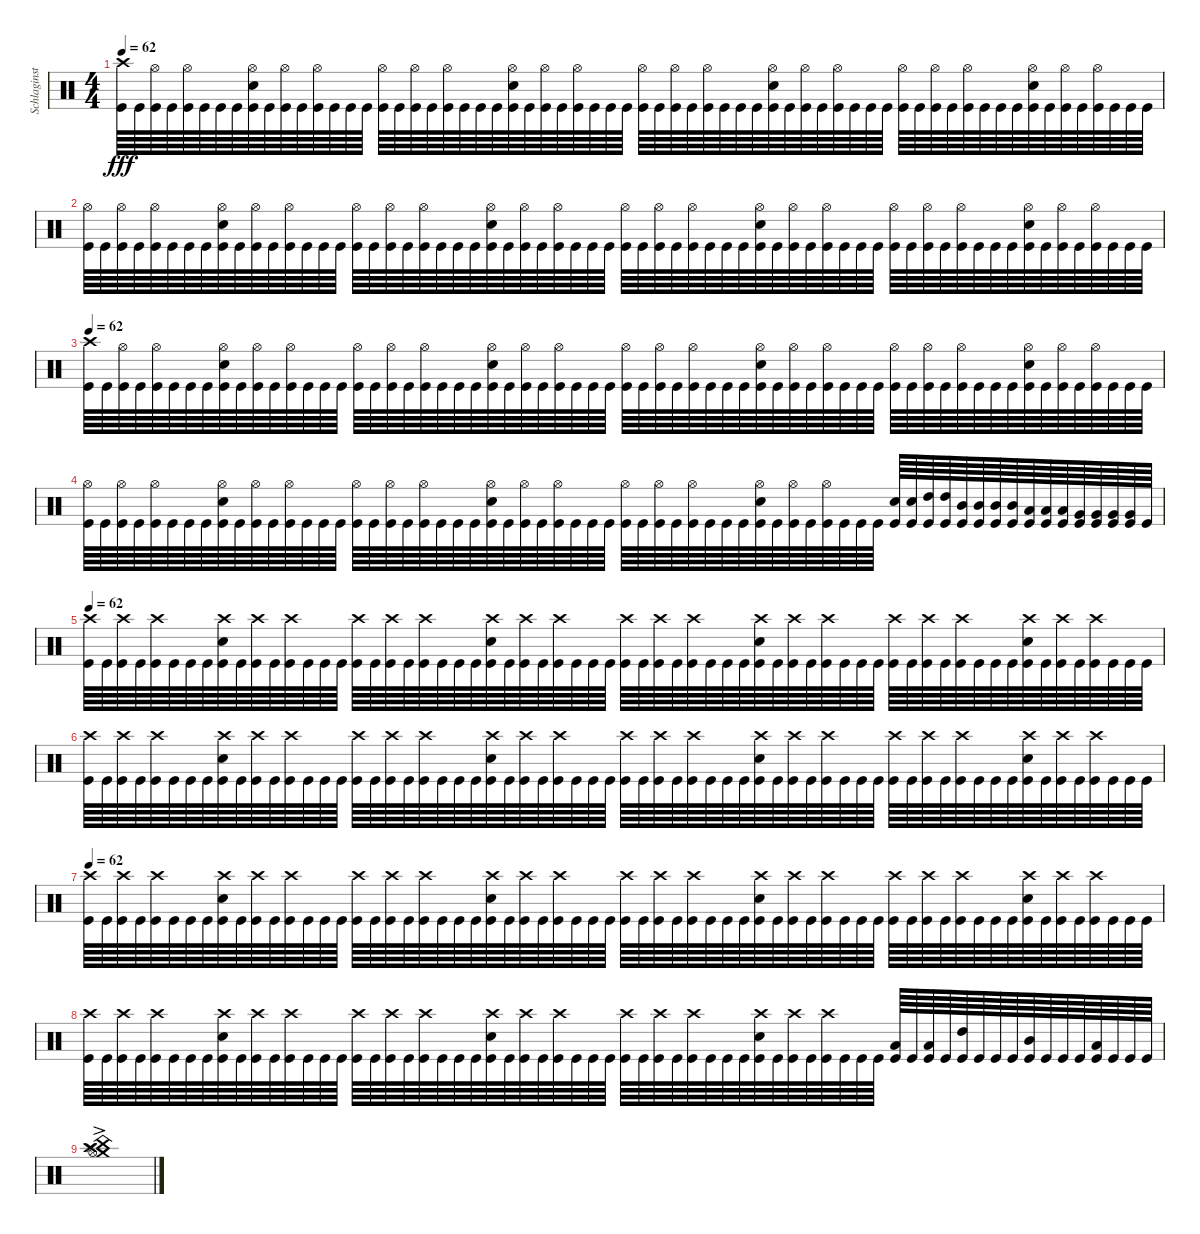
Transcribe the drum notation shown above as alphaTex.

\track ("Schlaginstrumente - Auswahl" "Schlaginst") {instrument percussion}
\staff {score}
\articulation defaults
\ts (4 4)
\tempo 62
\clef neutral
\ks c
("Kick (hit)" "Crash high (hit)").64{dy fff} "Kick (hit)".64 ("Kick (hit)" "Hi-Hat (open)").64 "Kick (hit)".64 ("Kick (hit)" "Hi-Hat (open)").64 "Kick (hit)".64 "Kick (hit)".64 "Kick (hit)".64 ("Kick (hit)" "Hi-Hat (open)" "Snare (hit) 2").64 "Kick (hit)".64 ("Kick (hit)" "Hi-Hat (open)").64 "Kick (hit)".64 ("Kick (hit)" "Hi-Hat (open)").64 "Kick (hit)".64 "Kick (hit)".64 "Kick (hit)".64 ("Kick (hit)" "Hi-Hat (open)").64 "Kick (hit)".64 ("Kick (hit)" "Hi-Hat (open)").64 "Kick (hit)".64 ("Kick (hit)" "Hi-Hat (open)").64 "Kick (hit)".64 "Kick (hit)".64 "Kick (hit)".64 ("Kick (hit)" "Hi-Hat (open)" "Snare (hit) 2").64 "Kick (hit)".64 ("Kick (hit)" "Hi-Hat (open)").64 "Kick (hit)".64 ("Kick (hit)" "Hi-Hat (open)").64 "Kick (hit)".64 "Kick (hit)".64 "Kick (hit)".64 ("Kick (hit)" "Hi-Hat (open)").64 "Kick (hit)".64 ("Kick (hit)" "Hi-Hat (open)").64 "Kick (hit)".64 ("Kick (hit)" "Hi-Hat (open)").64 "Kick (hit)".64 "Kick (hit)".64 "Kick (hit)".64 ("Kick (hit)" "Hi-Hat (open)" "Snare (hit) 2").64 "Kick (hit)".64 ("Kick (hit)" "Hi-Hat (open)").64 "Kick (hit)".64 ("Kick (hit)" "Hi-Hat (open)").64 "Kick (hit)".64 "Kick (hit)".64 "Kick (hit)".64 ("Kick (hit)" "Hi-Hat (open)").64 "Kick (hit)".64 ("Kick (hit)" "Hi-Hat (open)").64 "Kick (hit)".64 ("Kick (hit)" "Hi-Hat (open)").64 "Kick (hit)".64 "Kick (hit)".64 "Kick (hit)".64 ("Kick (hit)" "Hi-Hat (open)" "Snare (hit) 2").64 "Kick (hit)".64 ("Kick (hit)" "Hi-Hat (open)").64 "Kick (hit)".64 ("Kick (hit)" "Hi-Hat (open)").64 "Kick (hit)".64 "Kick (hit)".64 "Kick (hit)".64 |
("Kick (hit)" "Hi-Hat (open)").64 "Kick (hit)".64 ("Kick (hit)" "Hi-Hat (open)").64 "Kick (hit)".64 ("Kick (hit)" "Hi-Hat (open)").64 "Kick (hit)".64 "Kick (hit)".64 "Kick (hit)".64 ("Kick (hit)" "Hi-Hat (open)" "Snare (hit) 2").64 "Kick (hit)".64 ("Kick (hit)" "Hi-Hat (open)").64 "Kick (hit)".64 ("Kick (hit)" "Hi-Hat (open)").64 "Kick (hit)".64 "Kick (hit)".64 "Kick (hit)".64 ("Kick (hit)" "Hi-Hat (open)").64 "Kick (hit)".64 ("Kick (hit)" "Hi-Hat (open)").64 "Kick (hit)".64 ("Kick (hit)" "Hi-Hat (open)").64 "Kick (hit)".64 "Kick (hit)".64 "Kick (hit)".64 ("Kick (hit)" "Hi-Hat (open)" "Snare (hit) 2").64 "Kick (hit)".64 ("Kick (hit)" "Hi-Hat (open)").64 "Kick (hit)".64 ("Kick (hit)" "Hi-Hat (open)").64 "Kick (hit)".64 "Kick (hit)".64 "Kick (hit)".64 ("Kick (hit)" "Hi-Hat (open)").64 "Kick (hit)".64 ("Kick (hit)" "Hi-Hat (open)").64 "Kick (hit)".64 ("Kick (hit)" "Hi-Hat (open)").64 "Kick (hit)".64 "Kick (hit)".64 "Kick (hit)".64 ("Kick (hit)" "Hi-Hat (open)" "Snare (hit) 2").64 "Kick (hit)".64 ("Kick (hit)" "Hi-Hat (open)").64 "Kick (hit)".64 ("Kick (hit)" "Hi-Hat (open)").64 "Kick (hit)".64 "Kick (hit)".64 "Kick (hit)".64 ("Kick (hit)" "Hi-Hat (open)").64 "Kick (hit)".64 ("Kick (hit)" "Hi-Hat (open)").64 "Kick (hit)".64 ("Kick (hit)" "Hi-Hat (open)").64 "Kick (hit)".64 "Kick (hit)".64 "Kick (hit)".64 ("Kick (hit)" "Hi-Hat (open)" "Snare (hit) 2").64 "Kick (hit)".64 ("Kick (hit)" "Hi-Hat (open)").64 "Kick (hit)".64 ("Kick (hit)" "Hi-Hat (open)").64 "Kick (hit)".64 "Kick (hit)".64 "Kick (hit)".64 |
\tempo 62
("Kick (hit)" "Crash high (hit)").64 "Kick (hit)".64 ("Kick (hit)" "Hi-Hat (open)").64 "Kick (hit)".64 ("Kick (hit)" "Hi-Hat (open)").64 "Kick (hit)".64 "Kick (hit)".64 "Kick (hit)".64 ("Kick (hit)" "Hi-Hat (open)" "Snare (hit) 2").64 "Kick (hit)".64 ("Kick (hit)" "Hi-Hat (open)").64 "Kick (hit)".64 ("Kick (hit)" "Hi-Hat (open)").64 "Kick (hit)".64 "Kick (hit)".64 "Kick (hit)".64 ("Kick (hit)" "Hi-Hat (open)").64 "Kick (hit)".64 ("Kick (hit)" "Hi-Hat (open)").64 "Kick (hit)".64 ("Kick (hit)" "Hi-Hat (open)").64 "Kick (hit)".64 "Kick (hit)".64 "Kick (hit)".64 ("Kick (hit)" "Hi-Hat (open)" "Snare (hit) 2").64 "Kick (hit)".64 ("Kick (hit)" "Hi-Hat (open)").64 "Kick (hit)".64 ("Kick (hit)" "Hi-Hat (open)").64 "Kick (hit)".64 "Kick (hit)".64 "Kick (hit)".64 ("Kick (hit)" "Hi-Hat (open)").64 "Kick (hit)".64 ("Kick (hit)" "Hi-Hat (open)").64 "Kick (hit)".64 ("Kick (hit)" "Hi-Hat (open)").64 "Kick (hit)".64 "Kick (hit)".64 "Kick (hit)".64 ("Kick (hit)" "Hi-Hat (open)" "Snare (hit) 2").64 "Kick (hit)".64 ("Kick (hit)" "Hi-Hat (open)").64 "Kick (hit)".64 ("Kick (hit)" "Hi-Hat (open)").64 "Kick (hit)".64 "Kick (hit)".64 "Kick (hit)".64 ("Kick (hit)" "Hi-Hat (open)").64 "Kick (hit)".64 ("Kick (hit)" "Hi-Hat (open)").64 "Kick (hit)".64 ("Kick (hit)" "Hi-Hat (open)").64 "Kick (hit)".64 "Kick (hit)".64 "Kick (hit)".64 ("Kick (hit)" "Hi-Hat (open)" "Snare (hit) 2").64 "Kick (hit)".64 ("Kick (hit)" "Hi-Hat (open)").64 "Kick (hit)".64 ("Kick (hit)" "Hi-Hat (open)").64 "Kick (hit)".64 "Kick (hit)".64 "Kick (hit)".64 |
("Kick (hit)" "Hi-Hat (open)").64 "Kick (hit)".64 ("Kick (hit)" "Hi-Hat (open)").64 "Kick (hit)".64 ("Kick (hit)" "Hi-Hat (open)").64 "Kick (hit)".64 "Kick (hit)".64 "Kick (hit)".64 ("Kick (hit)" "Hi-Hat (open)" "Snare (hit) 2").64 "Kick (hit)".64 ("Kick (hit)" "Hi-Hat (open)").64 "Kick (hit)".64 ("Kick (hit)" "Hi-Hat (open)").64 "Kick (hit)".64 "Kick (hit)".64 "Kick (hit)".64 ("Kick (hit)" "Hi-Hat (open)").64 "Kick (hit)".64 ("Kick (hit)" "Hi-Hat (open)").64 "Kick (hit)".64 ("Kick (hit)" "Hi-Hat (open)").64 "Kick (hit)".64 "Kick (hit)".64 "Kick (hit)".64 ("Kick (hit)" "Hi-Hat (open)" "Snare (hit) 2").64 "Kick (hit)".64 ("Kick (hit)" "Hi-Hat (open)").64 "Kick (hit)".64 ("Kick (hit)" "Hi-Hat (open)").64 "Kick (hit)".64 "Kick (hit)".64 "Kick (hit)".64 ("Kick (hit)" "Hi-Hat (open)").64 "Kick (hit)".64 ("Kick (hit)" "Hi-Hat (open)").64 "Kick (hit)".64 ("Kick (hit)" "Hi-Hat (open)").64 "Kick (hit)".64 "Kick (hit)".64 "Kick (hit)".64 ("Kick (hit)" "Hi-Hat (open)" "Snare (hit) 2").64 "Kick (hit)".64 ("Kick (hit)" "Hi-Hat (open)").64 "Kick (hit)".64 ("Kick (hit)" "Hi-Hat (open)").64 "Kick (hit)".64 "Kick (hit)".64 "Kick (hit)".64 ("Kick (hit)" "Snare (hit) 2").64 ("Kick (hit)" "Snare (hit) 2").64 ("Kick (hit)" "High Tom (hit)").64 ("Kick (hit)" "High Tom (hit)").64 ("Kick (hit)" "Mid Tom (hit)").64 ("Kick (hit)" "Mid Tom (hit)").64 ("Kick (hit)" "Mid Tom (hit)").64 ("Kick (hit)" "Mid Tom (hit)").64 ("Kick (hit)" "Low Tom (hit)").64 ("Kick (hit)" "Low Tom (hit)").64 ("Kick (hit)" "Low Tom (hit)").64 ("Kick (hit)" "Very Low Tom (hit)").64 ("Kick (hit)" "Very Low Tom (hit)").64 ("Kick (hit)" "Very Low Tom (hit)").64 ("Kick (hit)" "Very Low Tom (hit)").64 "Kick (hit)".64 |
\tempo 62
("Kick (hit)" "Crash high (hit)").64 "Kick (hit)".64 ("Kick (hit)" "Crash high (hit)").64 "Kick (hit)".64 ("Kick (hit)" "Crash high (hit)").64 "Kick (hit)".64 "Kick (hit)".64 "Kick (hit)".64 ("Kick (hit)" "Crash high (hit)" "Snare (hit) 2").64 "Kick (hit)".64 ("Kick (hit)" "Crash high (hit)").64 "Kick (hit)".64 ("Kick (hit)" "Crash high (hit)").64 "Kick (hit)".64 "Kick (hit)".64 "Kick (hit)".64 ("Kick (hit)" "Crash high (hit)").64 "Kick (hit)".64 ("Kick (hit)" "Crash high (hit)").64 "Kick (hit)".64 ("Kick (hit)" "Crash high (hit)").64 "Kick (hit)".64 "Kick (hit)".64 "Kick (hit)".64 ("Kick (hit)" "Crash high (hit)" "Snare (hit) 2").64 "Kick (hit)".64 ("Kick (hit)" "Crash high (hit)").64 "Kick (hit)".64 ("Kick (hit)" "Crash high (hit)").64 "Kick (hit)".64 "Kick (hit)".64 "Kick (hit)".64 ("Kick (hit)" "Crash high (hit)").64 "Kick (hit)".64 ("Kick (hit)" "Crash high (hit)").64 "Kick (hit)".64 ("Kick (hit)" "Crash high (hit)").64 "Kick (hit)".64 "Kick (hit)".64 "Kick (hit)".64 ("Kick (hit)" "Crash high (hit)" "Snare (hit) 2").64 "Kick (hit)".64 ("Kick (hit)" "Crash high (hit)").64 "Kick (hit)".64 ("Kick (hit)" "Crash high (hit)").64 "Kick (hit)".64 "Kick (hit)".64 "Kick (hit)".64 ("Kick (hit)" "Crash high (hit)").64 "Kick (hit)".64 ("Kick (hit)" "Crash high (hit)").64 "Kick (hit)".64 ("Kick (hit)" "Crash high (hit)").64 "Kick (hit)".64 "Kick (hit)".64 "Kick (hit)".64 ("Kick (hit)" "Crash high (hit)" "Snare (hit) 2").64 "Kick (hit)".64 ("Kick (hit)" "Crash high (hit)").64 "Kick (hit)".64 ("Kick (hit)" "Crash high (hit)").64 "Kick (hit)".64 "Kick (hit)".64 "Kick (hit)".64 |
("Kick (hit)" "Crash high (hit)").64 "Kick (hit)".64 ("Kick (hit)" "Crash high (hit)").64 "Kick (hit)".64 ("Kick (hit)" "Crash high (hit)").64 "Kick (hit)".64 "Kick (hit)".64 "Kick (hit)".64 ("Kick (hit)" "Crash high (hit)" "Snare (hit) 2").64 "Kick (hit)".64 ("Kick (hit)" "Crash high (hit)").64 "Kick (hit)".64 ("Kick (hit)" "Crash high (hit)").64 "Kick (hit)".64 "Kick (hit)".64 "Kick (hit)".64 ("Kick (hit)" "Crash high (hit)").64 "Kick (hit)".64 ("Kick (hit)" "Crash high (hit)").64 "Kick (hit)".64 ("Kick (hit)" "Crash high (hit)").64 "Kick (hit)".64 "Kick (hit)".64 "Kick (hit)".64 ("Kick (hit)" "Crash high (hit)" "Snare (hit) 2").64 "Kick (hit)".64 ("Kick (hit)" "Crash high (hit)").64 "Kick (hit)".64 ("Kick (hit)" "Crash high (hit)").64 "Kick (hit)".64 "Kick (hit)".64 "Kick (hit)".64 ("Kick (hit)" "Crash high (hit)").64 "Kick (hit)".64 ("Kick (hit)" "Crash high (hit)").64 "Kick (hit)".64 ("Kick (hit)" "Crash high (hit)").64 "Kick (hit)".64 "Kick (hit)".64 "Kick (hit)".64 ("Kick (hit)" "Crash high (hit)" "Snare (hit) 2").64 "Kick (hit)".64 ("Kick (hit)" "Crash high (hit)").64 "Kick (hit)".64 ("Kick (hit)" "Crash high (hit)").64 "Kick (hit)".64 "Kick (hit)".64 "Kick (hit)".64 ("Kick (hit)" "Crash high (hit)").64 "Kick (hit)".64 ("Kick (hit)" "Crash high (hit)").64 "Kick (hit)".64 ("Kick (hit)" "Crash high (hit)").64 "Kick (hit)".64 "Kick (hit)".64 "Kick (hit)".64 ("Kick (hit)" "Crash high (hit)" "Snare (hit) 2").64 "Kick (hit)".64 ("Kick (hit)" "Crash high (hit)").64 "Kick (hit)".64 ("Kick (hit)" "Crash high (hit)").64 "Kick (hit)".64 "Kick (hit)".64 "Kick (hit)".64 |
\tempo 62
("Kick (hit)" "Crash high (hit)").64 "Kick (hit)".64 ("Kick (hit)" "Crash high (hit)").64 "Kick (hit)".64 ("Kick (hit)" "Crash high (hit)").64 "Kick (hit)".64 "Kick (hit)".64 "Kick (hit)".64 ("Kick (hit)" "Crash high (hit)" "Snare (hit) 2").64 "Kick (hit)".64 ("Kick (hit)" "Crash high (hit)").64 "Kick (hit)".64 ("Kick (hit)" "Crash high (hit)").64 "Kick (hit)".64 "Kick (hit)".64 "Kick (hit)".64 ("Kick (hit)" "Crash high (hit)").64 "Kick (hit)".64 ("Kick (hit)" "Crash high (hit)").64 "Kick (hit)".64 ("Kick (hit)" "Crash high (hit)").64 "Kick (hit)".64 "Kick (hit)".64 "Kick (hit)".64 ("Kick (hit)" "Crash high (hit)" "Snare (hit) 2").64 "Kick (hit)".64 ("Kick (hit)" "Crash high (hit)").64 "Kick (hit)".64 ("Kick (hit)" "Crash high (hit)").64 "Kick (hit)".64 "Kick (hit)".64 "Kick (hit)".64 ("Kick (hit)" "Crash high (hit)").64 "Kick (hit)".64 ("Kick (hit)" "Crash high (hit)").64 "Kick (hit)".64 ("Kick (hit)" "Crash high (hit)").64 "Kick (hit)".64 "Kick (hit)".64 "Kick (hit)".64 ("Kick (hit)" "Crash high (hit)" "Snare (hit) 2").64 "Kick (hit)".64 ("Kick (hit)" "Crash high (hit)").64 "Kick (hit)".64 ("Kick (hit)" "Crash high (hit)").64 "Kick (hit)".64 "Kick (hit)".64 "Kick (hit)".64 ("Kick (hit)" "Crash high (hit)").64 "Kick (hit)".64 ("Kick (hit)" "Crash high (hit)").64 "Kick (hit)".64 ("Kick (hit)" "Crash high (hit)").64 "Kick (hit)".64 "Kick (hit)".64 "Kick (hit)".64 ("Kick (hit)" "Crash high (hit)" "Snare (hit) 2").64 "Kick (hit)".64 ("Kick (hit)" "Crash high (hit)").64 "Kick (hit)".64 ("Kick (hit)" "Crash high (hit)").64 "Kick (hit)".64 "Kick (hit)".64 "Kick (hit)".64 |
("Kick (hit)" "Crash high (hit)").64 "Kick (hit)".64 ("Kick (hit)" "Crash high (hit)").64 "Kick (hit)".64 ("Kick (hit)" "Crash high (hit)").64 "Kick (hit)".64 "Kick (hit)".64 "Kick (hit)".64 ("Kick (hit)" "Crash high (hit)" "Snare (hit) 2").64 "Kick (hit)".64 ("Kick (hit)" "Crash high (hit)").64 "Kick (hit)".64 ("Kick (hit)" "Crash high (hit)").64 "Kick (hit)".64 "Kick (hit)".64 "Kick (hit)".64 ("Kick (hit)" "Crash high (hit)").64 "Kick (hit)".64 ("Kick (hit)" "Crash high (hit)").64 "Kick (hit)".64 ("Kick (hit)" "Crash high (hit)").64 "Kick (hit)".64 "Kick (hit)".64 "Kick (hit)".64 ("Kick (hit)" "Crash high (hit)" "Snare (hit) 2").64 "Kick (hit)".64 ("Kick (hit)" "Crash high (hit)").64 "Kick (hit)".64 ("Kick (hit)" "Crash high (hit)").64 "Kick (hit)".64 "Kick (hit)".64 "Kick (hit)".64 ("Kick (hit)" "Crash high (hit)").64 "Kick (hit)".64 ("Kick (hit)" "Crash high (hit)").64 "Kick (hit)".64 ("Kick (hit)" "Crash high (hit)").64 "Kick (hit)".64 "Kick (hit)".64 "Kick (hit)".64 ("Kick (hit)" "Crash high (hit)" "Snare (hit) 2").64 "Kick (hit)".64 ("Kick (hit)" "Crash high (hit)").64 "Kick (hit)".64 ("Kick (hit)" "Crash high (hit)").64 "Kick (hit)".64 "Kick (hit)".64 "Kick (hit)".64 ("Kick (hit)" "Low Tom (hit)").64 "Kick (hit)".64 ("Kick (hit)" "Low Tom (hit)").64 "Kick (hit)".64 ("Kick (hit)" "High Tom (hit)").64 "Kick (hit)".64 "Kick (hit)".64 "Kick (hit)".64 ("Kick (hit)" "Mid Tom (hit)").64 "Kick (hit)".64 "Kick (hit)".64 "Kick (hit)".64 ("Kick (hit)" "Low Tom (hit)").64 "Kick (hit)".64 "Kick (hit)".64 "Kick (hit)".64 |
("Splash (hit)"{ac} "Crash medium (hit)"{ac} "Crash high (hit)"{ac} "China (hit)"{ac} "Hi-Hat (open)"{ac}).1
